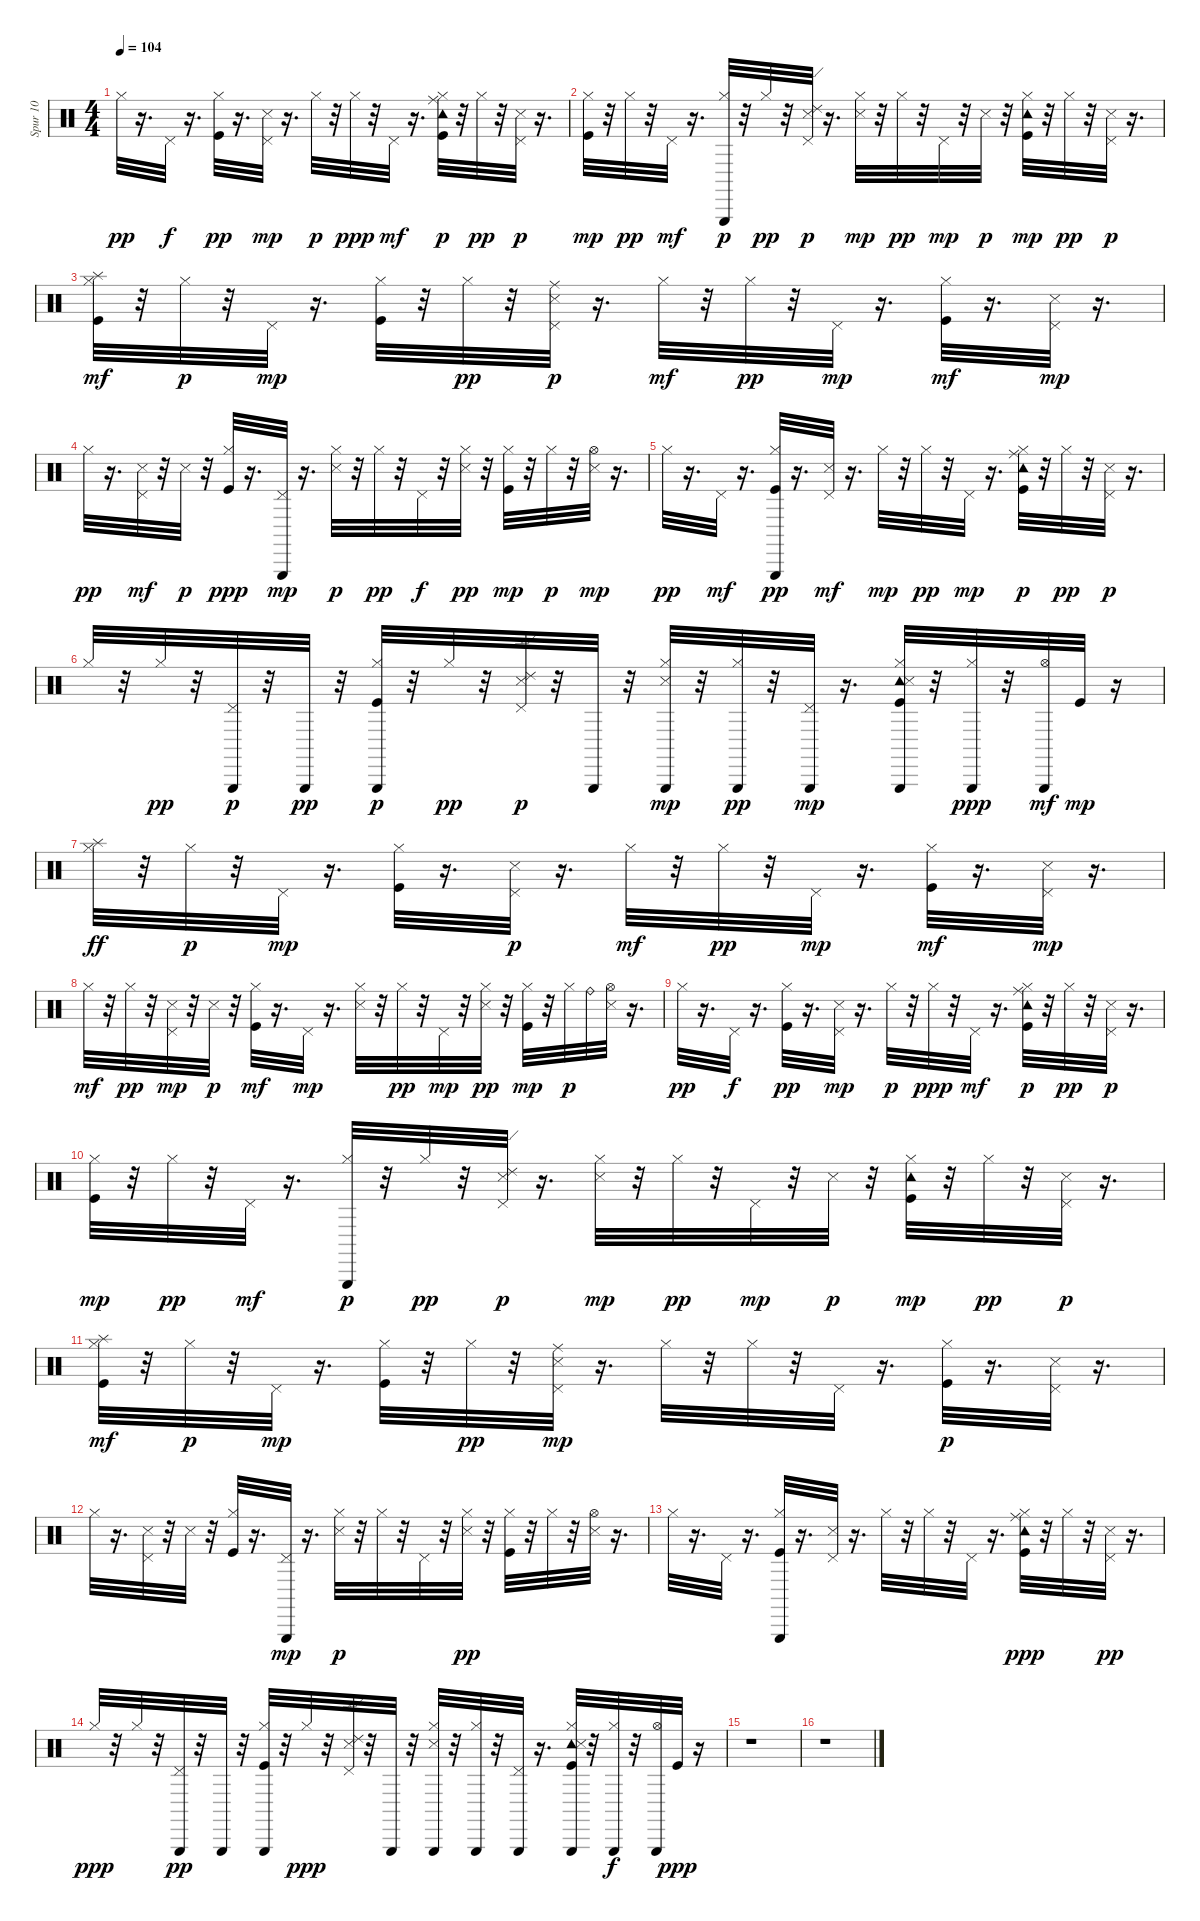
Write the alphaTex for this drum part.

\track ("Spur 10" "Spur 10") {instrument percussion}
\staff {score}
\articulation defaults
\ts (4 4)
\tempo 104
\clef neutral
\ks c "Hi-Hat (closed)".32{dy pp}
r.16{d} "Pedal Hi-Hat (hit)".32{dy f} r.16{d} ("Kick (hit)" "Hi-Hat (closed)").32{dy pp} r.16{d} ("Snare (side stick) 3" "Pedal Hi-Hat (hit)").32{dy mp} r.16{d} "Hi-Hat (closed)".32{dy p} r.32 "Hi-Hat (closed)".32{dy ppp} r.32 "Pedal Hi-Hat (hit)".32{dy mf} r.16{d} ("Ride (middle)" "Tambourine (hit)" "Kick (hit)" "Hi-Hat (closed)").32{dy p} r.32 "Hi-Hat (closed)".32{dy pp} r.32 ("Pedal Hi-Hat (hit)" "Snare (side stick) 3").32{dy p} r.16{d} |
("Kick (hit)" "Hi-Hat (closed)").32{dy mp} r.32 "Hi-Hat (closed)".32{dy pp} r.32 "Pedal Hi-Hat (hit)".32{dy mf} r.16{d} ("Triangle (hit)" "Hi-Hat (closed)").32{dy p} r.32 "Hi-Hat (closed)".32{dy pp} r.32 ("Snare (side stick) 3" "Pedal Hi-Hat (hit)" "Ride (edge) 2").32{dy p} r.16{d} ("Snare (side stick) 3" "Hi-Hat (closed)").32{dy mp} r.32 "Hi-Hat (closed)".32{dy pp} r.32 "Pedal Hi-Hat (hit)".32{dy mp} r.32 "Snare (side stick) 3".32{dy p} r.32 ("Tambourine (hit)" "Kick (hit)" "Hi-Hat (closed)").32{dy mp} r.32 "Hi-Hat (closed)".32{dy pp} r.32 ("Snare (side stick) 3" "Pedal Hi-Hat (hit)").32{dy p} r.16{d} |
("Hi-Hat (closed)" "Kick (hit)" "Splash (hit)").32{dy mf} r.32 "Hi-Hat (closed)".32{dy p} r.32 "Pedal Hi-Hat (hit)".32{dy mp} r.16{d} ("Kick (hit)" "Hi-Hat (closed)").32 r.32 "Hi-Hat (closed)".32{dy pp} r.32 ("Ride (middle)" "Snare (side stick) 3" "Pedal Hi-Hat (hit)").32{dy p} r.16{d} "Hi-Hat (closed)".32{dy mf} r.32 "Hi-Hat (closed)".32{dy pp} r.32 "Pedal Hi-Hat (hit)".32{dy mp} r.16{d} ("Kick (hit)" "Hi-Hat (closed)").32{dy mf} r.16{d} ("Snare (side stick) 3" "Pedal Hi-Hat (hit)").32{dy mp} r.16{d} |
"Hi-Hat (closed)".32{dy pp} r.16{d} ("Snare (side stick) 3" "Pedal Hi-Hat (hit)").32{dy mf} r.32 "Snare (side stick) 3".32{dy p} r.32 ("Kick (hit)" "Hi-Hat (closed)").32{dy ppp} r.16{d} ("Pedal Hi-Hat (hit)" "Triangle (hit)").32{dy mp} r.16{d} ("Snare (side stick) 3" "Hi-Hat (closed)").32{dy p} r.32 "Hi-Hat (closed)".32{dy pp} r.32 "Pedal Hi-Hat (hit)".32{dy f} r.32 ("Snare (side stick) 3" "Hi-Hat (closed)").32{dy pp} r.32 ("Kick (hit)" "Hi-Hat (closed)").32{dy mp} r.32 "Hi-Hat (closed)".32{dy p} r.32 ("Snare (side stick) 3" "Hi-Hat (open)").32{dy mp} r.16{d} |
"Hi-Hat (closed)".32{dy pp} r.16{d} "Pedal Hi-Hat (hit)".32{dy mf} r.16{d} ("Triangle (hit)" "Kick (hit)" "Hi-Hat (closed)").32{dy pp} r.16{d} ("Snare (side stick) 3" "Pedal Hi-Hat (hit)").32{dy mf} r.16{d} "Hi-Hat (closed)".32{dy mp} r.32 "Hi-Hat (closed)".32{dy pp} r.32 "Pedal Hi-Hat (hit)".32{dy mp} r.16{d} ("Ride (middle)" "Tambourine (hit)" "Kick (hit)" "Hi-Hat (closed)").32{dy p} r.32 "Hi-Hat (closed)".32{dy pp} r.32 ("Pedal Hi-Hat (hit)" "Snare (side stick) 3").32{dy p} r.16{d} |
"Hi-Hat (closed)".32 r.32 "Hi-Hat (closed)".32{dy pp} r.32 ("Pedal Hi-Hat (hit)" "Triangle (hit)").32{dy p} r.32 "Triangle (hit)".32{dy pp} r.32 ("Kick (hit)" "Hi-Hat (closed)" "Triangle (hit)").32{dy p} r.32 "Hi-Hat (closed)".32{dy pp} r.32 ("Snare (side stick) 3" "Pedal Hi-Hat (hit)" "Ride (edge) 2").32{dy p} r.32 "Triangle (hit)".32 r.32 ("Triangle (hit)" "Snare (side stick) 3" "Hi-Hat (closed)").32{dy mp} r.32 ("Hi-Hat (closed)" "Triangle (hit)").32{dy pp} r.32 ("Pedal Hi-Hat (hit)" "Triangle (hit)").32{dy mp} r.16{d} ("Tambourine (hit)" "Snare (side stick) 3" "Kick (hit)" "Hi-Hat (closed)" "Triangle (hit)").32 r.32 ("Triangle (hit)" "Hi-Hat (closed)").32{dy ppp} r.32 ("Hi-Hat (open)" "Triangle (hit)").32{dy mf} "Kick (hit)".32{dy mp} r.16 |
("Hi-Hat (closed)" "Splash (hit)").32{dy ff} r.32 "Hi-Hat (closed)".32{dy p} r.32 "Pedal Hi-Hat (hit)".32{dy mp} r.16{d} ("Kick (hit)" "Hi-Hat (closed)").32 r.16{d} ("Snare (side stick) 3" "Pedal Hi-Hat (hit)").32{dy p} r.16{d} "Hi-Hat (closed)".32{dy mf} r.32 "Hi-Hat (closed)".32{dy pp} r.32 "Pedal Hi-Hat (hit)".32{dy mp} r.16{d} ("Kick (hit)" "Hi-Hat (closed)").32{dy mf} r.16{d} ("Snare (side stick) 3" "Pedal Hi-Hat (hit)").32{dy mp} r.16{d} |
"Hi-Hat (closed)".32{dy mf} r.32 "Hi-Hat (closed)".32{dy pp} r.32 ("Snare (side stick) 3" "Pedal Hi-Hat (hit)").32{dy mp} r.32 "Snare (side stick) 3".32{dy p} r.32 ("Kick (hit)" "Hi-Hat (closed)").32{dy mf} r.16{d} "Pedal Hi-Hat (hit)".32{dy mp} r.16{d} ("Snare (side stick) 3" "Hi-Hat (closed)").32 r.32 "Hi-Hat (closed)".32{dy pp} r.32 "Pedal Hi-Hat (hit)".32{dy mp} r.32 ("Snare (side stick) 3" "Hi-Hat (closed)").32{dy pp} r.32 ("Kick (hit)" "Hi-Hat (closed)").32{dy mp} r.32 "Hi-Hat (closed)".32{dy p} "Ride (bell)".32 ("Snare (side stick) 3" "Hi-Hat (open)").32 r.16{d} |
"Hi-Hat (closed)".32{dy pp} r.16{d} "Pedal Hi-Hat (hit)".32{dy f} r.16{d} ("Kick (hit)" "Hi-Hat (closed)").32{dy pp} r.16{d} ("Snare (side stick) 3" "Pedal Hi-Hat (hit)").32{dy mp} r.16{d} "Hi-Hat (closed)".32{dy p} r.32 "Hi-Hat (closed)".32{dy ppp} r.32 "Pedal Hi-Hat (hit)".32{dy mf} r.16{d} ("Ride (middle)" "Tambourine (hit)" "Kick (hit)" "Hi-Hat (closed)").32{dy p} r.32 "Hi-Hat (closed)".32{dy pp} r.32 ("Pedal Hi-Hat (hit)" "Snare (side stick) 3").32{dy p} r.16{d} |
("Kick (hit)" "Hi-Hat (closed)").32{dy mp} r.32 "Hi-Hat (closed)".32{dy pp} r.32 "Pedal Hi-Hat (hit)".32{dy mf} r.16{d} ("Triangle (hit)" "Hi-Hat (closed)").32{dy p} r.32 "Hi-Hat (closed)".32{dy pp} r.32 ("Snare (side stick) 3" "Pedal Hi-Hat (hit)" "Ride (edge) 2").32{dy p} r.16{d} ("Snare (side stick) 3" "Hi-Hat (closed)").32{dy mp} r.32 "Hi-Hat (closed)".32{dy pp} r.32 "Pedal Hi-Hat (hit)".32{dy mp} r.32 "Snare (side stick) 3".32{dy p} r.32 ("Tambourine (hit)" "Kick (hit)" "Hi-Hat (closed)").32{dy mp} r.32 "Hi-Hat (closed)".32{dy pp} r.32 ("Snare (side stick) 3" "Pedal Hi-Hat (hit)").32{dy p} r.16{d} |
("Hi-Hat (closed)" "Kick (hit)" "Splash (hit)").32{dy mf} r.32 "Hi-Hat (closed)".32{dy p} r.32 "Pedal Hi-Hat (hit)".32{dy mp} r.16{d} ("Kick (hit)" "Hi-Hat (closed)").32 r.32 "Hi-Hat (closed)".32{dy pp} r.32 ("Ride (middle)" "Snare (side stick) 3" "Pedal Hi-Hat (hit)").32{dy mp} r.16{d} "Hi-Hat (closed)".32 r.32 "Hi-Hat (closed)".32 r.32 "Pedal Hi-Hat (hit)".32 r.16{d} ("Kick (hit)" "Hi-Hat (closed)").32{dy p} r.16{d} ("Snare (side stick) 3" "Pedal Hi-Hat (hit)").32 r.16{d} |
"Hi-Hat (closed)".32 r.16{d} ("Snare (side stick) 3" "Pedal Hi-Hat (hit)").32 r.32 "Snare (side stick) 3".32 r.32 ("Kick (hit)" "Hi-Hat (closed)").32 r.16{d} ("Pedal Hi-Hat (hit)" "Triangle (hit)").32{dy mp} r.16{d} ("Snare (side stick) 3" "Hi-Hat (closed)").32{dy p} r.32 "Hi-Hat (closed)".32 r.32 "Pedal Hi-Hat (hit)".32 r.32 ("Snare (side stick) 3" "Hi-Hat (closed)").32{dy pp} r.32 ("Kick (hit)" "Hi-Hat (closed)").32 r.32 "Hi-Hat (closed)".32 r.32 ("Snare (side stick) 3" "Hi-Hat (open)").32 r.16{d} |
"Hi-Hat (closed)".32 r.16{d} "Pedal Hi-Hat (hit)".32 r.16{d} ("Triangle (hit)" "Kick (hit)" "Hi-Hat (closed)").32 r.16{d} ("Snare (side stick) 3" "Pedal Hi-Hat (hit)").32 r.16{d} "Hi-Hat (closed)".32 r.32 "Hi-Hat (closed)".32 r.32 "Pedal Hi-Hat (hit)".32 r.16{d} ("Ride (middle)" "Tambourine (hit)" "Kick (hit)" "Hi-Hat (closed)").32{dy ppp} r.32 "Hi-Hat (closed)".32 r.32 ("Pedal Hi-Hat (hit)" "Snare (side stick) 3").32{dy pp} r.16{d} |
"Hi-Hat (closed)".32{dy ppp} r.32 "Hi-Hat (closed)".32 r.32 ("Pedal Hi-Hat (hit)" "Triangle (hit)").32{dy pp} r.32 "Triangle (hit)".32 r.32 ("Kick (hit)" "Hi-Hat (closed)" "Triangle (hit)").32 r.32 "Hi-Hat (closed)".32{dy ppp} r.32 ("Snare (side stick) 3" "Pedal Hi-Hat (hit)" "Ride (edge) 2").32 r.32 "Triangle (hit)".32 r.32 ("Triangle (hit)" "Snare (side stick) 3" "Hi-Hat (closed)").32 r.32 ("Hi-Hat (closed)" "Triangle (hit)").32 r.32 ("Pedal Hi-Hat (hit)" "Triangle (hit)").32 r.16{d} ("Tambourine (hit)" "Snare (side stick) 3" "Kick (hit)" "Hi-Hat (closed)" "Triangle (hit)").32 r.32 ("Triangle (hit)" "Hi-Hat (closed)").32{dy f} r.32 ("Hi-Hat (open)" "Triangle (hit)").32 "Kick (hit)".32{dy ppp} r.16 |
r.1 |
r.1
